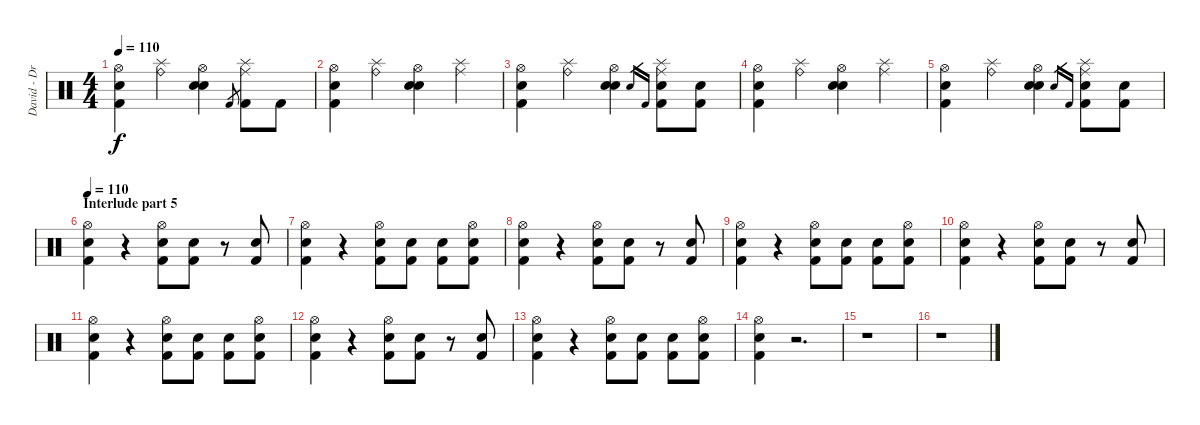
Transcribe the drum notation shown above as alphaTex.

\track ("David - Drums" "David - Dr") {instrument percussion}
\staff {score}
\articulation defaults
\ts (4 4)
\tempo 110
\clef neutral
\ks c
("Hi-Hat (open)" "Snare (hit) 2" "Kick (hit) 2").4{dy f} ("Ride (bell)" "Splash (hit)").4 ("Hi-Hat (open)" "Electric Snare (hit)" "Snare (hit) 2").4 "Kick (hit) 2".8{gr} ("Ride (middle)" "Splash (hit)" "Kick (hit) 2").8 "Kick (hit) 2".8 |
("Hi-Hat (open)" "Snare (hit) 2" "Kick (hit) 2").4 ("Ride (bell)" "Splash (hit)").4 ("Hi-Hat (open)" "Electric Snare (hit)" "Snare (hit) 2").4 ("Ride (middle)" "Splash (hit)").4 |
("Hi-Hat (open)" "Snare (hit) 2" "Kick (hit) 2").4 ("Ride (bell)" "Splash (hit)").4 ("Hi-Hat (open)" "Electric Snare (hit)" "Snare (hit) 2").4 "Electric Snare (hit)".16{gr} "Kick (hit) 2".16{gr} ("Ride (middle)" "Splash (hit)" "Electric Snare (hit)" "Kick (hit) 2").8 ("Electric Snare (hit)" "Kick (hit) 2").8 |
("Hi-Hat (open)" "Snare (hit) 2" "Kick (hit) 2").4 ("Ride (bell)" "Splash (hit)").4 ("Hi-Hat (open)" "Electric Snare (hit)" "Snare (hit) 2").4 ("Ride (middle)" "Splash (hit)").4 |
("Hi-Hat (open)" "Snare (hit) 2" "Kick (hit) 2").4 ("Ride (bell)" "Splash (hit)").4 ("Hi-Hat (open)" "Electric Snare (hit)" "Snare (hit) 2").4 "Electric Snare (hit)".16{gr} "Kick (hit) 2".16{gr} ("Ride (middle)" "Splash (hit)" "Electric Snare (hit)" "Kick (hit) 2").8 ("Electric Snare (hit)" "Kick (hit) 2").8 |
\section ("" "Interlude part 5")
\tempo 110
("Hi-Hat (open)" "Electric Snare (hit)" "Kick (hit) 2").4 r.4 ("Hi-Hat (open)" "Electric Snare (hit)" "Kick (hit) 2").8 ("Electric Snare (hit)" "Kick (hit) 2").8 r.8 ("Electric Snare (hit)" "Kick (hit) 2").8 |
("Hi-Hat (open)" "Electric Snare (hit)" "Kick (hit) 2").4 r.4 ("Hi-Hat (open)" "Electric Snare (hit)" "Kick (hit) 2").8 ("Electric Snare (hit)" "Kick (hit) 2").8 ("Electric Snare (hit)" "Kick (hit) 2").8 ("Hi-Hat (open)" "Electric Snare (hit)" "Kick (hit) 2").8 |
("Hi-Hat (open)" "Electric Snare (hit)" "Kick (hit) 2").4 r.4 ("Hi-Hat (open)" "Electric Snare (hit)" "Kick (hit) 2").8 ("Electric Snare (hit)" "Kick (hit) 2").8 r.8 ("Electric Snare (hit)" "Kick (hit) 2").8 |
("Hi-Hat (open)" "Electric Snare (hit)" "Kick (hit) 2").4 r.4 ("Hi-Hat (open)" "Electric Snare (hit)" "Kick (hit) 2").8 ("Electric Snare (hit)" "Kick (hit) 2").8 ("Electric Snare (hit)" "Kick (hit) 2").8 ("Hi-Hat (open)" "Electric Snare (hit)" "Kick (hit) 2").8 |
("Hi-Hat (open)" "Electric Snare (hit)" "Kick (hit) 2").4 r.4 ("Hi-Hat (open)" "Electric Snare (hit)" "Kick (hit) 2").8 ("Electric Snare (hit)" "Kick (hit) 2").8 r.8 ("Electric Snare (hit)" "Kick (hit) 2").8 |
("Hi-Hat (open)" "Electric Snare (hit)" "Kick (hit) 2").4 r.4 ("Hi-Hat (open)" "Electric Snare (hit)" "Kick (hit) 2").8 ("Electric Snare (hit)" "Kick (hit) 2").8 ("Electric Snare (hit)" "Kick (hit) 2").8 ("Hi-Hat (open)" "Electric Snare (hit)" "Kick (hit) 2").8 |
("Hi-Hat (open)" "Electric Snare (hit)" "Kick (hit) 2").4 r.4 ("Hi-Hat (open)" "Electric Snare (hit)" "Kick (hit) 2").8 ("Electric Snare (hit)" "Kick (hit) 2").8 r.8 ("Electric Snare (hit)" "Kick (hit) 2").8 |
("Hi-Hat (open)" "Electric Snare (hit)" "Kick (hit) 2").4 r.4 ("Hi-Hat (open)" "Electric Snare (hit)" "Kick (hit) 2").8 ("Electric Snare (hit)" "Kick (hit) 2").8 ("Electric Snare (hit)" "Kick (hit) 2").8 ("Hi-Hat (open)" "Electric Snare (hit)" "Kick (hit) 2").8 |
("Hi-Hat (open)" "Electric Snare (hit)" "Kick (hit) 2").4 r.2{d} |
r.1 |
r.1
